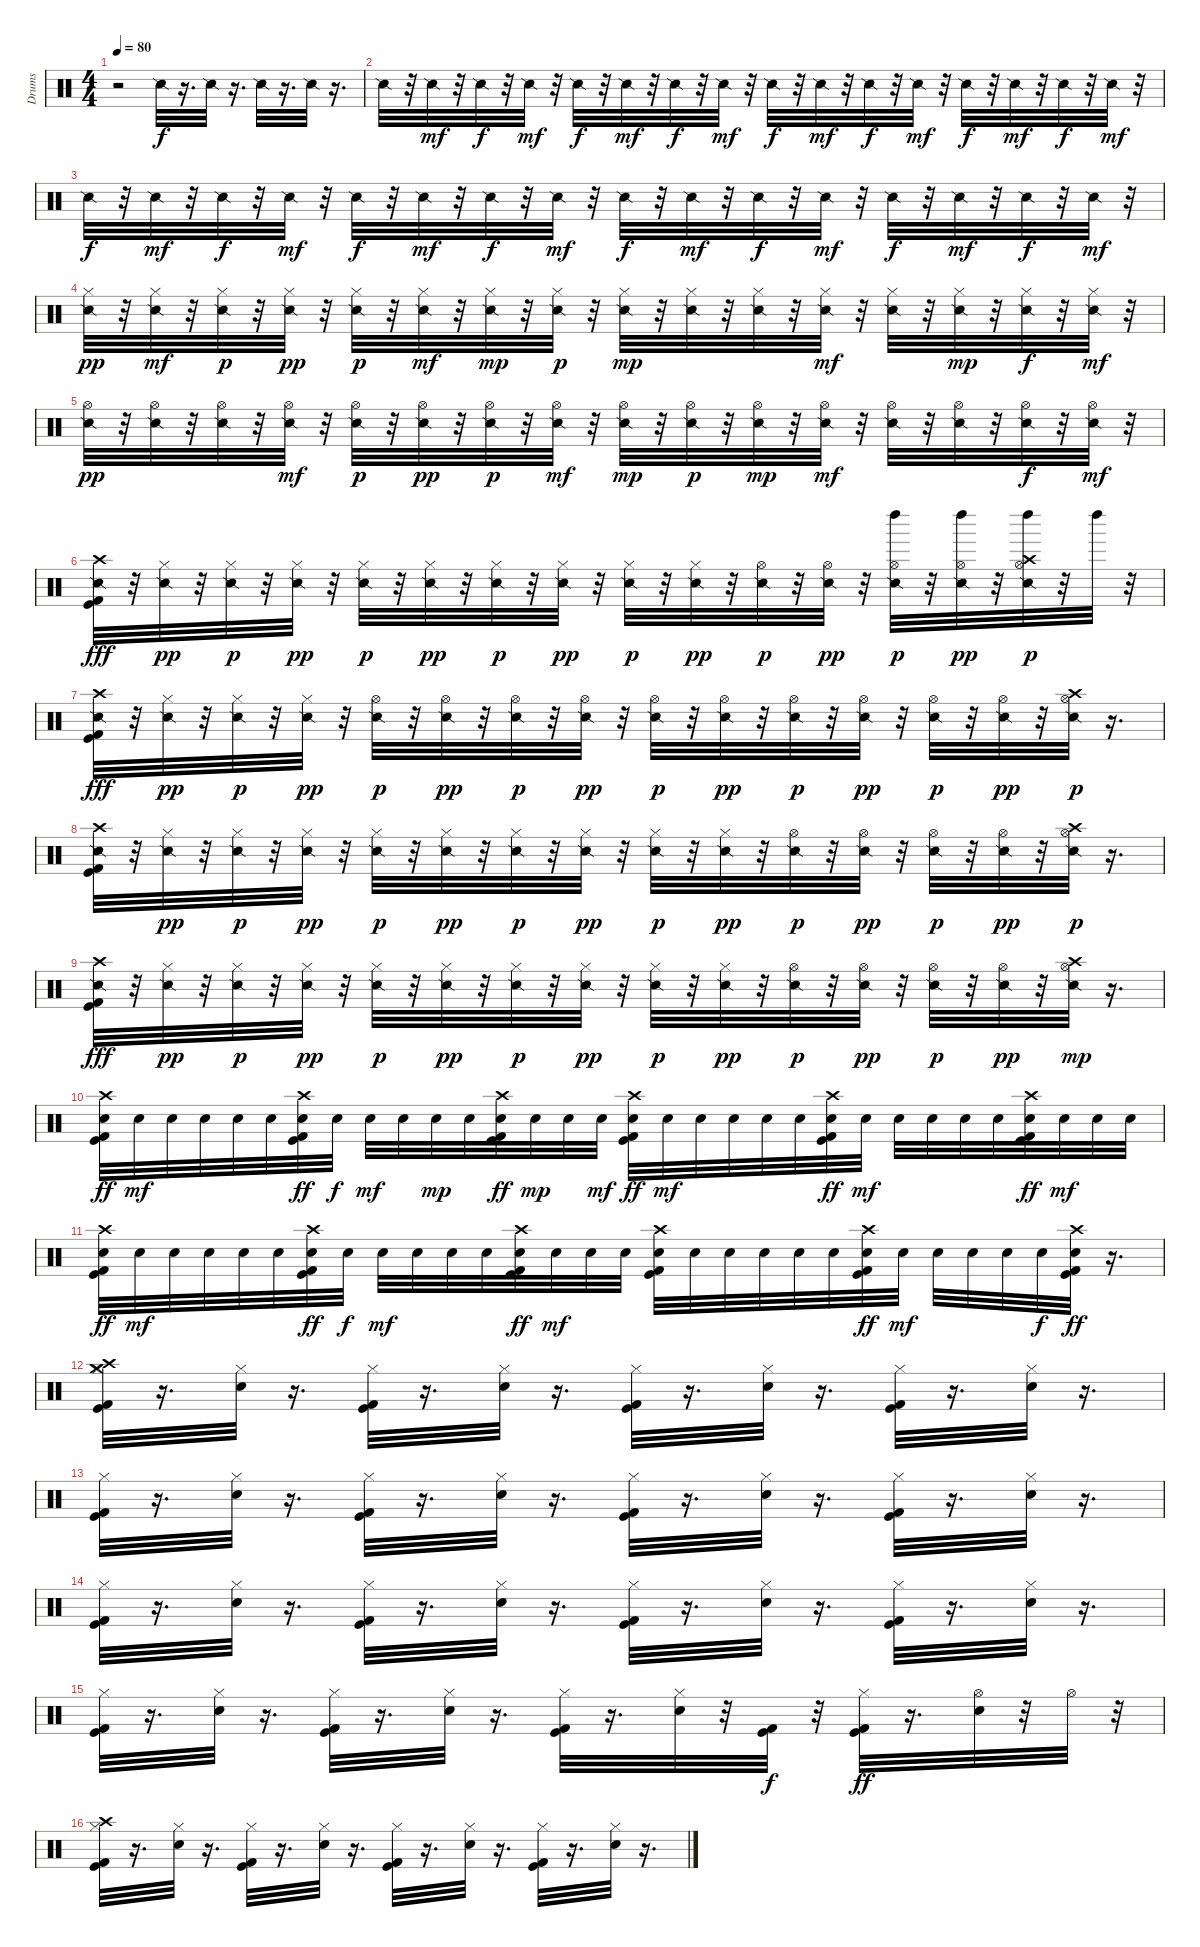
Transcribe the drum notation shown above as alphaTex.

\track ("Drums" "Drums") {instrument percussion}
\staff {score}
\articulation defaults
\ts (4 4)
\tempo 80
\clef neutral
\ks c
r.2{dy f} "Snare (side stick) 2".32 r.16{d} "Snare (side stick) 2".32 r.16{d} "Snare (side stick) 2".32 r.16{d} "Snare (side stick) 2".32 r.16{d} |
"Snare (side stick) 2".32 r.32 "Snare (side stick) 2".32{dy mf} r.32 "Snare (side stick) 2".32{dy f} r.32 "Snare (side stick) 2".32{dy mf} r.32 "Snare (side stick) 2".32{dy f} r.32 "Snare (side stick) 2".32{dy mf} r.32 "Snare (side stick) 2".32{dy f} r.32 "Snare (side stick) 2".32{dy mf} r.32 "Snare (side stick) 2".32{dy f} r.32 "Snare (side stick) 2".32{dy mf} r.32 "Snare (side stick) 2".32{dy f} r.32 "Snare (side stick) 2".32{dy mf} r.32 "Snare (side stick) 2".32{dy f} r.32 "Snare (side stick) 2".32{dy mf} r.32 "Snare (side stick) 2".32{dy f} r.32 "Snare (side stick) 2".32{dy mf} r.32 |
"Snare (side stick) 2".32{dy f} r.32 "Snare (side stick) 2".32{dy mf} r.32 "Snare (side stick) 2".32{dy f} r.32 "Snare (side stick) 2".32{dy mf} r.32 "Snare (side stick) 2".32{dy f} r.32 "Snare (side stick) 2".32{dy mf} r.32 "Snare (side stick) 2".32{dy f} r.32 "Snare (side stick) 2".32{dy mf} r.32 "Snare (side stick) 2".32{dy f} r.32 "Snare (side stick) 2".32{dy mf} r.32 "Snare (side stick) 2".32{dy f} r.32 "Snare (side stick) 2".32{dy mf} r.32 "Snare (side stick) 2".32{dy f} r.32 "Snare (side stick) 2".32{dy mf} r.32 "Snare (side stick) 2".32{dy f} r.32 "Snare (side stick) 2".32{dy mf} r.32 |
("Hi-Hat (closed)" "Snare (side stick) 2").32{dy pp} r.32 ("Hi-Hat (closed)" "Snare (side stick) 2").32{dy mf} r.32 ("Hi-Hat (closed)" "Snare (side stick) 2").32{dy p} r.32 ("Snare (side stick) 2" "Hi-Hat (closed)").32{dy pp} r.32 ("Hi-Hat (closed)" "Snare (side stick) 2").32{dy p} r.32 ("Hi-Hat (closed)" "Snare (side stick) 2").32{dy mf} r.32 ("Snare (side stick) 2" "Hi-Hat (closed)").32{dy mp} r.32 ("Snare (side stick) 2" "Hi-Hat (closed)").32{dy p} r.32 ("Hi-Hat (closed)" "Snare (side stick) 2").32{dy mp} r.32 ("Snare (side stick) 2" "Hi-Hat (closed)").32 r.32 ("Snare (side stick) 2" "Hi-Hat (closed)").32 r.32 ("Hi-Hat (closed)" "Snare (side stick) 2").32{dy mf} r.32 ("Hi-Hat (closed)" "Snare (side stick) 2").32 r.32 ("Snare (side stick) 2" "Hi-Hat (closed)").32{dy mp} r.32 ("Snare (side stick) 2" "Hi-Hat (closed)").32{dy f} r.32 ("Snare (side stick) 2" "Hi-Hat (closed)").32{dy mf} r.32 |
("Hi-Hat (open)" "Snare (side stick) 2").32{dy pp} r.32 ("Snare (side stick) 2" "Hi-Hat (open)").32 r.32 ("Snare (side stick) 2" "Hi-Hat (open)").32 r.32 ("Hi-Hat (open)" "Snare (side stick) 2").32{dy mf} r.32 ("Snare (side stick) 2" "Hi-Hat (open)").32{dy p} r.32 ("Snare (side stick) 2" "Hi-Hat (open)").32{dy pp} r.32 ("Hi-Hat (open)" "Snare (side stick) 2").32{dy p} r.32 ("Hi-Hat (open)" "Snare (side stick) 2").32{dy mf} r.32 ("Hi-Hat (open)" "Snare (side stick) 2").32{dy mp} r.32 ("Snare (side stick) 2" "Hi-Hat (open)").32{dy p} r.32 ("Hi-Hat (open)" "Snare (side stick) 2").32{dy mp} r.32 ("Hi-Hat (open)" "Snare (side stick) 2").32{dy mf} r.32 ("Hi-Hat (open)" "Snare (side stick) 2").32 r.32 ("Hi-Hat (open)" "Snare (side stick) 2").32 r.32 ("Hi-Hat (open)" "Snare (side stick) 2").32{dy f} r.32 ("Hi-Hat (open)" "Snare (side stick) 2").32{dy mf} r.32 |
("Crash high (hit)" "Kick (hit)" "Snare (side stick) 2" "Kick (hit) 2").32{dy fff} r.32 ("Hi-Hat (closed)" "Snare (side stick) 2").32{dy pp} r.32 ("Hi-Hat (closed)" "Snare (side stick) 2").32{dy p} r.32 ("Hi-Hat (closed)" "Snare (side stick) 2").32{dy pp} r.32 ("Hi-Hat (closed)" "Snare (side stick) 2").32{dy p} r.32 ("Hi-Hat (closed)" "Snare (side stick) 2").32{dy pp} r.32 ("Hi-Hat (closed)" "Snare (side stick) 2").32{dy p} r.32 ("Hi-Hat (closed)" "Snare (side stick) 2").32{dy pp} r.32 ("Hi-Hat (closed)" "Snare (side stick) 2").32{dy p} r.32 ("Hi-Hat (closed)" "Snare (side stick) 2").32{dy pp} r.32 ("Hi-Hat (open)" "Snare (side stick) 2").32{dy p} r.32 ("Hi-Hat (open)" "Snare (side stick) 2").32{dy pp} r.32 ("Left Maraca (hit)" "Hi-Hat (open)" "Snare (side stick) 2").32{dy p} r.32 ("Left Maraca (hit)" "Hi-Hat (open)" "Snare (side stick) 2").32{dy pp} r.32 ("Left Maraca (hit)" "Hi-Hat (open)" "Crash high (hit)" "Snare (side stick) 2").32{dy p} r.32 "Left Maraca (hit)".32 r.32 |
("Crash high (hit)" "Kick (hit)" "Snare (side stick) 2" "Kick (hit) 2").32{dy fff} r.32 ("Hi-Hat (closed)" "Snare (side stick) 2").32{dy pp} r.32 ("Hi-Hat (closed)" "Snare (side stick) 2").32{dy p} r.32 ("Hi-Hat (closed)" "Snare (side stick) 2").32{dy pp} r.32 ("Hi-Hat (open)" "Snare (side stick) 2").32{dy p} r.32 ("Hi-Hat (open)" "Snare (side stick) 2").32{dy pp} r.32 ("Hi-Hat (open)" "Snare (side stick) 2").32{dy p} r.32 ("Hi-Hat (open)" "Snare (side stick) 2").32{dy pp} r.32 ("Hi-Hat (open)" "Snare (side stick) 2").32{dy p} r.32 ("Hi-Hat (open)" "Snare (side stick) 2").32{dy pp} r.32 ("Hi-Hat (open)" "Snare (side stick) 2").32{dy p} r.32 ("Hi-Hat (open)" "Snare (side stick) 2").32{dy pp} r.32 ("Hi-Hat (open)" "Snare (side stick) 2").32{dy p} r.32 ("Hi-Hat (open)" "Snare (side stick) 2").32{dy pp} r.32 ("Hi-Hat (open)" "Crash high (hit)" "Snare (side stick) 2").32{dy p} r.16{d} |
("Crash high (hit)" "Kick (hit)" "Kick (hit) 2" "Snare (side stick) 2").32 r.32 ("Hi-Hat (closed)" "Snare (side stick) 2").32{dy pp} r.32 ("Hi-Hat (closed)" "Snare (side stick) 2").32{dy p} r.32 ("Hi-Hat (closed)" "Snare (side stick) 2").32{dy pp} r.32 ("Hi-Hat (closed)" "Snare (side stick) 2").32{dy p} r.32 ("Hi-Hat (closed)" "Snare (side stick) 2").32{dy pp} r.32 ("Hi-Hat (closed)" "Snare (side stick) 2").32{dy p} r.32 ("Hi-Hat (closed)" "Snare (side stick) 2").32{dy pp} r.32 ("Hi-Hat (closed)" "Snare (side stick) 2").32{dy p} r.32 ("Hi-Hat (closed)" "Snare (side stick) 2").32{dy pp} r.32 ("Hi-Hat (open)" "Snare (side stick) 2").32{dy p} r.32 ("Hi-Hat (open)" "Snare (side stick) 2").32{dy pp} r.32 ("Hi-Hat (open)" "Snare (side stick) 2").32{dy p} r.32 ("Hi-Hat (open)" "Snare (side stick) 2").32{dy pp} r.32 ("Hi-Hat (open)" "Crash high (hit)" "Snare (side stick) 2").32{dy p} r.16{d} |
("Kick (hit)" "Crash high (hit)" "Snare (side stick) 2" "Kick (hit) 2").32{dy fff} r.32 ("Hi-Hat (closed)" "Snare (side stick) 2").32{dy pp} r.32 ("Hi-Hat (closed)" "Snare (side stick) 2").32{dy p} r.32 ("Hi-Hat (closed)" "Snare (side stick) 2").32{dy pp} r.32 ("Hi-Hat (closed)" "Snare (side stick) 2").32{dy p} r.32 ("Hi-Hat (closed)" "Snare (side stick) 2").32{dy pp} r.32 ("Hi-Hat (closed)" "Snare (side stick) 2").32{dy p} r.32 ("Hi-Hat (closed)" "Snare (side stick) 2").32{dy pp} r.32 ("Hi-Hat (closed)" "Snare (side stick) 2").32{dy p} r.32 ("Hi-Hat (closed)" "Snare (side stick) 2").32{dy pp} r.32 ("Hi-Hat (open)" "Snare (side stick) 2").32{dy p} r.32 ("Hi-Hat (open)" "Snare (side stick) 2").32{dy pp} r.32 ("Hi-Hat (open)" "Snare (side stick) 2").32{dy p} r.32 ("Hi-Hat (open)" "Snare (side stick) 2").32{dy pp} r.32 ("Hi-Hat (open)" "Snare (side stick) 2" "Crash high (hit)").32{dy mp} r.16{d} |
("Kick (hit)" "Crash high (hit)" "Electric Snare (hit)" "Kick (hit) 2").32{dy ff} "Electric Snare (hit)".32{dy mf} "Electric Snare (hit)".32 "Electric Snare (hit)".32 "Electric Snare (hit)".32 "Electric Snare (hit)".32 ("Kick (hit)" "Electric Snare (hit)" "Crash high (hit)" "Kick (hit) 2").32{dy ff} "Electric Snare (hit)".32{dy f} "Electric Snare (hit)".32{dy mf} "Electric Snare (hit)".32 "Electric Snare (hit)".32{dy mp} "Electric Snare (hit)".32 ("Kick (hit)" "Crash high (hit)" "Electric Snare (hit)" "Kick (hit) 2").32{dy ff} "Electric Snare (hit)".32{dy mp} "Electric Snare (hit)".32 "Electric Snare (hit)".32{dy mf} ("Kick (hit)" "Electric Snare (hit)" "Crash high (hit)" "Kick (hit) 2").32{dy ff} "Electric Snare (hit)".32{dy mf} "Electric Snare (hit)".32 "Electric Snare (hit)".32 "Electric Snare (hit)".32 "Electric Snare (hit)".32 ("Kick (hit)" "Kick (hit) 2" "Crash high (hit)" "Electric Snare (hit)").32{dy ff} "Electric Snare (hit)".32{dy mf} "Electric Snare (hit)".32 "Electric Snare (hit)".32 "Electric Snare (hit)".32 "Electric Snare (hit)".32 ("Kick (hit)" "Kick (hit) 2" "Crash high (hit)" "Electric Snare (hit)").32{dy ff} "Electric Snare (hit)".32{dy mf} "Electric Snare (hit)".32 "Electric Snare (hit)".32 |
("Kick (hit)" "Electric Snare (hit)" "Crash high (hit)" "Kick (hit) 2").32{dy ff} "Electric Snare (hit)".32{dy mf} "Electric Snare (hit)".32 "Electric Snare (hit)".32 "Electric Snare (hit)".32 "Electric Snare (hit)".32 ("Kick (hit)" "Crash high (hit)" "Electric Snare (hit)" "Kick (hit) 2").32{dy ff} "Electric Snare (hit)".32{dy f} "Electric Snare (hit)".32{dy mf} "Electric Snare (hit)".32 "Electric Snare (hit)".32 "Electric Snare (hit)".32 ("Kick (hit)" "Kick (hit) 2" "Electric Snare (hit)" "Crash high (hit)").32{dy ff} "Electric Snare (hit)".32{dy mf} "Electric Snare (hit)".32 "Electric Snare (hit)".32 ("Kick (hit)" "Kick (hit) 2" "Crash high (hit)" "Electric Snare (hit)").32 "Electric Snare (hit)".32 "Electric Snare (hit)".32 "Electric Snare (hit)".32 "Electric Snare (hit)".32 "Electric Snare (hit)".32 ("Kick (hit)" "Crash high (hit)" "Electric Snare (hit)" "Kick (hit) 2").32{dy ff} "Electric Snare (hit)".32{dy mf} "Electric Snare (hit)".32 "Electric Snare (hit)".32 "Electric Snare (hit)".32 "Electric Snare (hit)".32{dy f} ("Kick (hit)" "Crash high (hit)" "Kick (hit) 2" "Electric Snare (hit)").32{dy ff} r.16{d} |
("Crash medium (hit)" "Kick (hit)" "Hi-Hat (closed)" "Crash high (hit)" "Kick (hit) 2").32 r.16{d} ("Hi-Hat (closed)" "Electric Snare (hit)").32 r.16{d} ("Kick (hit)" "Kick (hit) 2" "Hi-Hat (closed)").32 r.16{d} ("Hi-Hat (closed)" "Electric Snare (hit)").32 r.16{d} ("Kick (hit)" "Hi-Hat (closed)" "Kick (hit) 2").32 r.16{d} ("Hi-Hat (closed)" "Electric Snare (hit)").32 r.16{d} ("Kick (hit) 2" "Hi-Hat (closed)" "Kick (hit)").32 r.16{d} ("Hi-Hat (closed)" "Electric Snare (hit)").32 r.16{d} |
("Kick (hit)" "Hi-Hat (closed)" "Kick (hit) 2").32 r.16{d} ("Hi-Hat (closed)" "Electric Snare (hit)").32 r.16{d} ("Hi-Hat (closed)" "Kick (hit) 2" "Kick (hit)").32 r.16{d} ("Hi-Hat (closed)" "Electric Snare (hit)").32 r.16{d} ("Kick (hit)" "Hi-Hat (closed)" "Kick (hit) 2").32 r.16{d} ("Hi-Hat (closed)" "Electric Snare (hit)").32 r.16{d} ("Kick (hit) 2" "Hi-Hat (closed)" "Kick (hit)").32 r.16{d} ("Hi-Hat (closed)" "Electric Snare (hit)").32 r.16{d} |
("Kick (hit)" "Hi-Hat (closed)" "Kick (hit) 2").32 r.16{d} ("Hi-Hat (closed)" "Electric Snare (hit)").32 r.16{d} ("Hi-Hat (closed)" "Kick (hit) 2" "Kick (hit)").32 r.16{d} ("Hi-Hat (closed)" "Electric Snare (hit)").32 r.16{d} ("Kick (hit)" "Hi-Hat (closed)" "Kick (hit) 2").32 r.16{d} ("Hi-Hat (closed)" "Electric Snare (hit)").32 r.16{d} ("Kick (hit) 2" "Hi-Hat (closed)" "Kick (hit)").32 r.16{d} ("Hi-Hat (closed)" "Electric Snare (hit)").32 r.16{d} |
("Kick (hit)" "Hi-Hat (closed)" "Kick (hit) 2").32 r.16{d} ("Hi-Hat (closed)" "Electric Snare (hit)").32 r.16{d} ("Hi-Hat (closed)" "Kick (hit)" "Kick (hit) 2").32 r.16{d} ("Hi-Hat (closed)" "Electric Snare (hit)").32 r.16{d} ("Kick (hit)" "Hi-Hat (closed)" "Kick (hit) 2").32 r.16{d} ("Hi-Hat (closed)" "Electric Snare (hit)").32 r.32 ("Kick (hit)" "Kick (hit) 2").32{dy f} r.32 ("Kick (hit)" "Hi-Hat (closed)" "Kick (hit) 2").32{dy ff} r.16{d} ("Hi-Hat (open)" "Electric Snare (hit)").32 r.32 "Hi-Hat (open)".32 r.32 |
("Kick (hit)" "Hi-Hat (closed)" "Crash high (hit)" "Kick (hit) 2").32 r.16{d} ("Hi-Hat (closed)" "Electric Snare (hit)").32 r.16{d} ("Hi-Hat (closed)" "Kick (hit) 2" "Kick (hit)").32 r.16{d} ("Hi-Hat (closed)" "Electric Snare (hit)").32 r.16{d} ("Kick (hit)" "Hi-Hat (closed)" "Kick (hit) 2").32 r.16{d} ("Hi-Hat (closed)" "Electric Snare (hit)").32 r.16{d} ("Kick (hit) 2" "Hi-Hat (closed)" "Kick (hit)").32 r.16{d} ("Hi-Hat (closed)" "Electric Snare (hit)").32 r.16{d}
